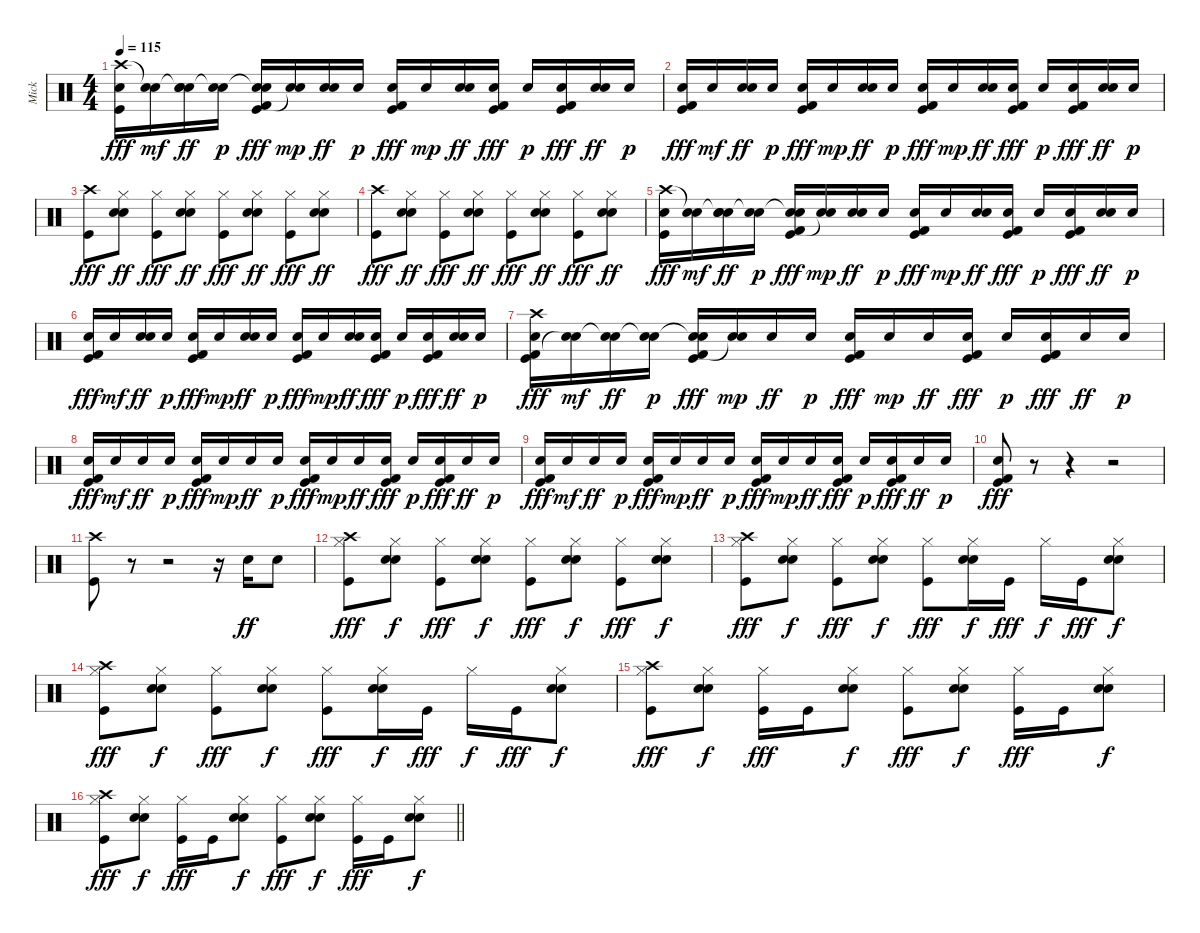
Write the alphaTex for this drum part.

\track ("Mick" "Mick") {instrument percussion}
\staff {score}
\articulation defaults
\ts (4 4)
\tempo 115
\clef neutral
\ks c
("Crash high (hit)" "Electric Snare (hit)" "Kick (hit)").16{dy fff} ("Snare (hit)"{t} "Electric Snare (hit)").16{dy mf} ("Hand Clap (hit)" "Snare (hit)"{t} "Electric Snare (hit)").16{dy ff} ("Snare (hit)"{t} "Electric Snare (hit)").16{dy p} ("Kick (hit) 2" "Snare (hit)"{t} "Electric Snare (hit)" "Kick (hit)").16{dy fff} ("Snare (hit)"{t} "Electric Snare (hit)").16{dy mp} ("Hand Clap (hit)" "Electric Snare (hit)").16{dy ff} "Electric Snare (hit)".16{dy p} ("Kick (hit) 2" "Electric Snare (hit)" "Kick (hit)").16{dy fff} "Electric Snare (hit)".16{dy mp} ("Hand Clap (hit)" "Electric Snare (hit)").16{dy ff} ("Kick (hit) 2" "Electric Snare (hit)" "Kick (hit)").16{dy fff} "Electric Snare (hit)".16{dy p} ("Kick (hit) 2" "Electric Snare (hit)" "Kick (hit)").16{dy fff} ("Hand Clap (hit)" "Electric Snare (hit)").16{dy ff} "Electric Snare (hit)".16{dy p} |
("Kick (hit) 2" "Electric Snare (hit)" "Kick (hit)").16{dy fff} "Electric Snare (hit)".16{dy mf} ("Hand Clap (hit)" "Electric Snare (hit)").16{dy ff} "Electric Snare (hit)".16{dy p} ("Kick (hit) 2" "Electric Snare (hit)" "Kick (hit)").16{dy fff} "Electric Snare (hit)".16{dy mp} ("Hand Clap (hit)" "Electric Snare (hit)").16{dy ff} "Electric Snare (hit)".16{dy p} ("Kick (hit) 2" "Electric Snare (hit)" "Kick (hit)").16{dy fff} "Electric Snare (hit)".16{dy mp} ("Hand Clap (hit)" "Electric Snare (hit)").16{dy ff} ("Kick (hit) 2" "Electric Snare (hit)" "Kick (hit)").16{dy fff} "Electric Snare (hit)".16{dy p} ("Kick (hit) 2" "Electric Snare (hit)" "Kick (hit)").16{dy fff} ("Hand Clap (hit)" "Electric Snare (hit)").16{dy ff} "Electric Snare (hit)".16{dy p} |
("Crash high (hit)" "Kick (hit)").8{dy fff} ("Hand Clap (hit)" "Hi-Hat (closed)" "Electric Snare (hit)").8{dy ff} ("Hi-Hat (closed)" "Kick (hit)").8{dy fff} ("Hand Clap (hit)" "Hi-Hat (closed)" "Electric Snare (hit)").8{dy ff} ("Hi-Hat (closed)" "Kick (hit)").8{dy fff} ("Hand Clap (hit)" "Hi-Hat (closed)" "Electric Snare (hit)").8{dy ff} ("Hi-Hat (closed)" "Kick (hit)").8{dy fff} ("Hand Clap (hit)" "Hi-Hat (closed)" "Electric Snare (hit)").8{dy ff} |
("Crash high (hit)" "Kick (hit)").8{dy fff} ("Hand Clap (hit)" "Hi-Hat (closed)" "Electric Snare (hit)").8{dy ff} ("Hi-Hat (closed)" "Kick (hit)").8{dy fff} ("Hand Clap (hit)" "Hi-Hat (closed)" "Electric Snare (hit)").8{dy ff} ("Hi-Hat (closed)" "Kick (hit)").8{dy fff} ("Hand Clap (hit)" "Hi-Hat (closed)" "Electric Snare (hit)").8{dy ff} ("Hi-Hat (closed)" "Kick (hit)").8{dy fff} ("Hand Clap (hit)" "Hi-Hat (closed)" "Electric Snare (hit)").8{dy ff} |
("Crash high (hit)" "Electric Snare (hit)" "Kick (hit)").16{dy fff} ("Snare (hit)"{t} "Electric Snare (hit)").16{dy mf} ("Hand Clap (hit)" "Snare (hit)"{t} "Electric Snare (hit)").16{dy ff} ("Snare (hit)"{t} "Electric Snare (hit)").16{dy p} ("Kick (hit) 2" "Snare (hit)"{t} "Electric Snare (hit)" "Kick (hit)").16{dy fff} ("Snare (hit)"{t} "Electric Snare (hit)").16{dy mp} ("Hand Clap (hit)" "Electric Snare (hit)").16{dy ff} "Electric Snare (hit)".16{dy p} ("Kick (hit) 2" "Electric Snare (hit)" "Kick (hit)").16{dy fff} "Electric Snare (hit)".16{dy mp} ("Hand Clap (hit)" "Electric Snare (hit)").16{dy ff} ("Kick (hit) 2" "Electric Snare (hit)" "Kick (hit)").16{dy fff} "Electric Snare (hit)".16{dy p} ("Kick (hit) 2" "Electric Snare (hit)" "Kick (hit)").16{dy fff} ("Hand Clap (hit)" "Electric Snare (hit)").16{dy ff} "Electric Snare (hit)".16{dy p} |
("Kick (hit) 2" "Electric Snare (hit)" "Kick (hit)").16{dy fff} "Electric Snare (hit)".16{dy mf} ("Hand Clap (hit)" "Electric Snare (hit)").16{dy ff} "Electric Snare (hit)".16{dy p} ("Kick (hit) 2" "Electric Snare (hit)" "Kick (hit)").16{dy fff} "Electric Snare (hit)".16{dy mp} ("Hand Clap (hit)" "Electric Snare (hit)").16{dy ff} "Electric Snare (hit)".16{dy p} ("Kick (hit) 2" "Electric Snare (hit)" "Kick (hit)").16{dy fff} "Electric Snare (hit)".16{dy mp} ("Hand Clap (hit)" "Electric Snare (hit)").16{dy ff} ("Kick (hit) 2" "Electric Snare (hit)" "Kick (hit)").16{dy fff} "Electric Snare (hit)".16{dy p} ("Kick (hit) 2" "Electric Snare (hit)" "Kick (hit)").16{dy fff} ("Hand Clap (hit)" "Electric Snare (hit)").16{dy ff} "Electric Snare (hit)".16{dy p} |
("Kick (hit) 2" "Crash high (hit)" "Electric Snare (hit)" "Kick (hit)").16{dy fff} ("Snare (hit)"{t} "Electric Snare (hit)").16{dy mf} ("Snare (hit)"{t} "Electric Snare (hit)").16{dy ff} ("Snare (hit)"{t} "Electric Snare (hit)").16{dy p} ("Kick (hit) 2" "Snare (hit)"{t} "Electric Snare (hit)" "Kick (hit)").16{dy fff} ("Snare (hit)"{t} "Electric Snare (hit)").16{dy mp} "Electric Snare (hit)".16{dy ff} "Electric Snare (hit)".16{dy p} ("Kick (hit) 2" "Electric Snare (hit)" "Kick (hit)").16{dy fff} "Electric Snare (hit)".16{dy mp} "Electric Snare (hit)".16{dy ff} ("Kick (hit) 2" "Electric Snare (hit)" "Kick (hit)").16{dy fff} "Electric Snare (hit)".16{dy p} ("Kick (hit) 2" "Electric Snare (hit)" "Kick (hit)").16{dy fff} "Electric Snare (hit)".16{dy ff} "Electric Snare (hit)".16{dy p} |
("Kick (hit) 2" "Electric Snare (hit)" "Kick (hit)").16{dy fff} "Electric Snare (hit)".16{dy mf} "Electric Snare (hit)".16{dy ff} "Electric Snare (hit)".16{dy p} ("Kick (hit) 2" "Electric Snare (hit)" "Kick (hit)").16{dy fff} "Electric Snare (hit)".16{dy mp} "Electric Snare (hit)".16{dy ff} "Electric Snare (hit)".16{dy p} ("Kick (hit) 2" "Electric Snare (hit)" "Kick (hit)").16{dy fff} "Electric Snare (hit)".16{dy mp} "Electric Snare (hit)".16{dy ff} ("Kick (hit) 2" "Electric Snare (hit)" "Kick (hit)").16{dy fff} "Electric Snare (hit)".16{dy p} ("Kick (hit) 2" "Electric Snare (hit)" "Kick (hit)").16{dy fff} "Electric Snare (hit)".16{dy ff} "Electric Snare (hit)".16{dy p} |
("Kick (hit) 2" "Electric Snare (hit)" "Kick (hit)").16{dy fff} "Electric Snare (hit)".16{dy mf} "Electric Snare (hit)".16{dy ff} "Electric Snare (hit)".16{dy p} ("Kick (hit) 2" "Electric Snare (hit)" "Kick (hit)").16{dy fff} "Electric Snare (hit)".16{dy mp} "Electric Snare (hit)".16{dy ff} "Electric Snare (hit)".16{dy p} ("Kick (hit) 2" "Electric Snare (hit)" "Kick (hit)").16{dy fff} "Electric Snare (hit)".16{dy mp} "Electric Snare (hit)".16{dy ff} ("Kick (hit) 2" "Electric Snare (hit)" "Kick (hit)").16{dy fff} "Electric Snare (hit)".16{dy p} ("Kick (hit) 2" "Electric Snare (hit)" "Kick (hit)").16{dy fff} "Electric Snare (hit)".16{dy ff} "Electric Snare (hit)".16{dy p} |
("Kick (hit) 2" "Electric Snare (hit)" "Kick (hit)").8{dy fff} r.8 r.4 r.2 |
("Crash high (hit)" "Kick (hit)").8 r.8 r.2 r.16 "Electric Snare (hit)".16{dy ff} "Electric Snare (hit)".8 |
("Crash high (hit)" "Hi-Hat (closed)" "Kick (hit)").8{dy fff} ("Hand Clap (hit)" "Hi-Hat (closed)" "Electric Snare (hit)").8{dy f} ("Hi-Hat (closed)" "Kick (hit)").8{dy fff} ("Hand Clap (hit)" "Hi-Hat (closed)" "Electric Snare (hit)").8{dy f} ("Hi-Hat (closed)" "Kick (hit)").8{dy fff} ("Hand Clap (hit)" "Hi-Hat (closed)" "Electric Snare (hit)").8{dy f} ("Hi-Hat (closed)" "Kick (hit)").8{dy fff} ("Hand Clap (hit)" "Hi-Hat (closed)" "Electric Snare (hit)").8{dy f} |
("Crash high (hit)" "Hi-Hat (closed)" "Kick (hit)").8{dy fff} ("Hand Clap (hit)" "Hi-Hat (closed)" "Electric Snare (hit)").8{dy f} ("Hi-Hat (closed)" "Kick (hit)").8{dy fff} ("Hand Clap (hit)" "Hi-Hat (closed)" "Electric Snare (hit)").8{dy f} ("Hi-Hat (closed)" "Kick (hit)").8{dy fff} ("Hand Clap (hit)" "Hi-Hat (closed)" "Electric Snare (hit)").16{dy f} "Kick (hit)".16{dy fff} "Hi-Hat (closed)".16{dy f} "Kick (hit)".16{dy fff} ("Hand Clap (hit)" "Hi-Hat (closed)" "Electric Snare (hit)").8{dy f} |
("Crash high (hit)" "Hi-Hat (closed)" "Kick (hit)").8{dy fff} ("Hand Clap (hit)" "Hi-Hat (closed)" "Electric Snare (hit)").8{dy f} ("Hi-Hat (closed)" "Kick (hit)").8{dy fff} ("Hand Clap (hit)" "Hi-Hat (closed)" "Electric Snare (hit)").8{dy f} ("Hi-Hat (closed)" "Kick (hit)").8{dy fff} ("Hand Clap (hit)" "Hi-Hat (closed)" "Electric Snare (hit)").16{dy f} "Kick (hit)".16{dy fff} "Hi-Hat (closed)".16{dy f} "Kick (hit)".16{dy fff} ("Hand Clap (hit)" "Hi-Hat (closed)" "Electric Snare (hit)").8{dy f} |
("Crash high (hit)" "Hi-Hat (closed)" "Kick (hit)").8{dy fff} ("Hand Clap (hit)" "Hi-Hat (closed)" "Electric Snare (hit)").8{dy f} ("Hi-Hat (closed)" "Kick (hit)").16{dy fff} "Kick (hit)".16 ("Hand Clap (hit)" "Hi-Hat (closed)" "Electric Snare (hit)").8{dy f} ("Hi-Hat (closed)" "Kick (hit)").8{dy fff} ("Hand Clap (hit)" "Hi-Hat (closed)" "Electric Snare (hit)").8{dy f} ("Hi-Hat (closed)" "Kick (hit)").16{dy fff} "Kick (hit)".16 ("Hand Clap (hit)" "Hi-Hat (closed)" "Electric Snare (hit)").8{dy f} |
\barLineRight lightlight
("Crash high (hit)" "Hi-Hat (closed)" "Kick (hit)").8{dy fff} ("Hand Clap (hit)" "Hi-Hat (closed)" "Electric Snare (hit)").8{dy f} ("Hi-Hat (closed)" "Kick (hit)").16{dy fff} "Kick (hit)".16 ("Hand Clap (hit)" "Hi-Hat (closed)" "Electric Snare (hit)").8{dy f} ("Hi-Hat (closed)" "Kick (hit)").8{dy fff} ("Hand Clap (hit)" "Hi-Hat (closed)" "Electric Snare (hit)").8{dy f} ("Hi-Hat (closed)" "Kick (hit)").16{dy fff} "Kick (hit)".16 ("Hand Clap (hit)" "Hi-Hat (closed)" "Electric Snare (hit)").8{dy f}
